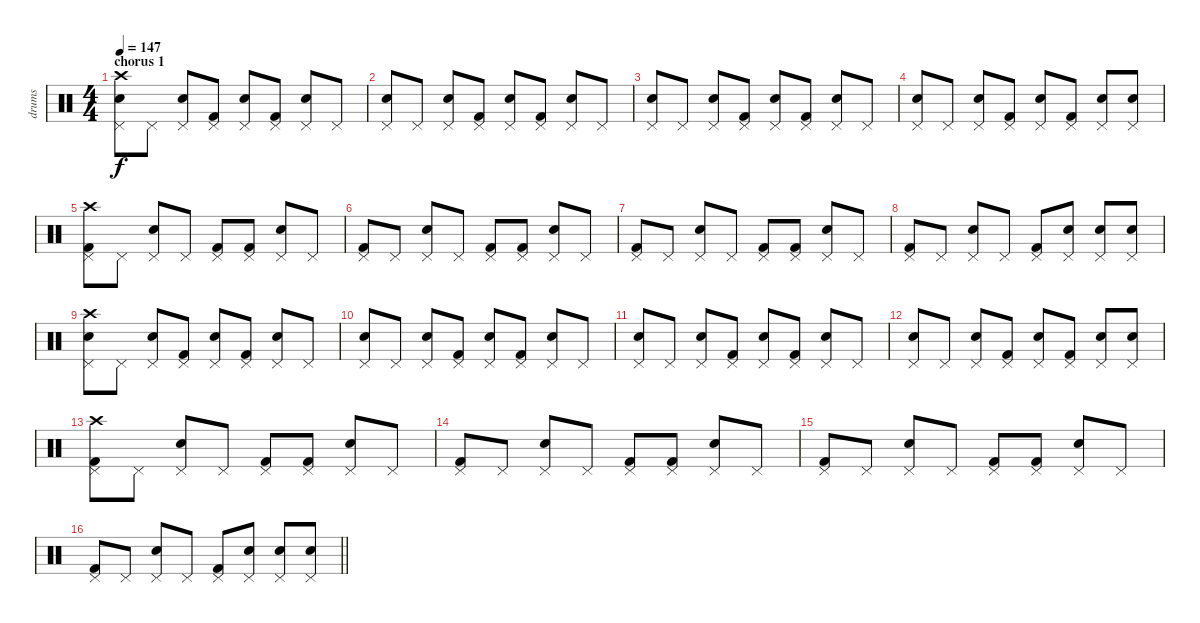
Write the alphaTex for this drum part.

\track ("drums" "drums") {instrument percussion}
\staff {score}
\articulation defaults
\ts (4 4)
\section ("" "chorus 1")
\tempo 147
\clef neutral
\ks c
("Crash high (hit)" "Snare (hit) 2" "Pedal Hi-Hat (hit)").8{dy f} "Pedal Hi-Hat (hit)".8 ("Snare (hit) 2" "Pedal Hi-Hat (hit)").8 ("Kick (hit) 2" "Pedal Hi-Hat (hit)").8 ("Snare (hit) 2" "Pedal Hi-Hat (hit)").8 ("Kick (hit) 2" "Pedal Hi-Hat (hit)").8 ("Snare (hit) 2" "Pedal Hi-Hat (hit)").8 "Pedal Hi-Hat (hit)".8 |
("Snare (hit) 2" "Pedal Hi-Hat (hit)").8 "Pedal Hi-Hat (hit)".8 ("Snare (hit) 2" "Pedal Hi-Hat (hit)").8 ("Kick (hit) 2" "Pedal Hi-Hat (hit)").8 ("Snare (hit) 2" "Pedal Hi-Hat (hit)").8 ("Kick (hit) 2" "Pedal Hi-Hat (hit)").8 ("Snare (hit) 2" "Pedal Hi-Hat (hit)").8 "Pedal Hi-Hat (hit)".8 |
("Snare (hit) 2" "Pedal Hi-Hat (hit)").8 "Pedal Hi-Hat (hit)".8 ("Snare (hit) 2" "Pedal Hi-Hat (hit)").8 ("Kick (hit) 2" "Pedal Hi-Hat (hit)").8 ("Snare (hit) 2" "Pedal Hi-Hat (hit)").8 ("Kick (hit) 2" "Pedal Hi-Hat (hit)").8 ("Snare (hit) 2" "Pedal Hi-Hat (hit)").8 "Pedal Hi-Hat (hit)".8 |
("Snare (hit) 2" "Pedal Hi-Hat (hit)").8 "Pedal Hi-Hat (hit)".8 ("Snare (hit) 2" "Pedal Hi-Hat (hit)").8 ("Kick (hit) 2" "Pedal Hi-Hat (hit)").8 ("Snare (hit) 2" "Pedal Hi-Hat (hit)").8 ("Kick (hit) 2" "Pedal Hi-Hat (hit)").8 ("Snare (hit) 2" "Pedal Hi-Hat (hit)").8 ("Snare (hit) 2" "Pedal Hi-Hat (hit)").8 |
("Kick (hit) 2" "Crash high (hit)" "Pedal Hi-Hat (hit)").8 "Pedal Hi-Hat (hit)".8 ("Snare (hit) 2" "Pedal Hi-Hat (hit)").8 "Pedal Hi-Hat (hit)".8 ("Kick (hit) 2" "Pedal Hi-Hat (hit)").8 ("Kick (hit) 2" "Pedal Hi-Hat (hit)").8 ("Snare (hit) 2" "Pedal Hi-Hat (hit)").8 "Pedal Hi-Hat (hit)".8 |
("Kick (hit) 2" "Pedal Hi-Hat (hit)").8 "Pedal Hi-Hat (hit)".8 ("Snare (hit) 2" "Pedal Hi-Hat (hit)").8 "Pedal Hi-Hat (hit)".8 ("Kick (hit) 2" "Pedal Hi-Hat (hit)").8 ("Kick (hit) 2" "Pedal Hi-Hat (hit)").8 ("Snare (hit) 2" "Pedal Hi-Hat (hit)").8 "Pedal Hi-Hat (hit)".8 |
("Kick (hit) 2" "Pedal Hi-Hat (hit)").8 "Pedal Hi-Hat (hit)".8 ("Snare (hit) 2" "Pedal Hi-Hat (hit)").8 "Pedal Hi-Hat (hit)".8 ("Kick (hit) 2" "Pedal Hi-Hat (hit)").8 ("Kick (hit) 2" "Pedal Hi-Hat (hit)").8 ("Snare (hit) 2" "Pedal Hi-Hat (hit)").8 "Pedal Hi-Hat (hit)".8 |
("Kick (hit) 2" "Pedal Hi-Hat (hit)").8 "Pedal Hi-Hat (hit)".8 ("Snare (hit) 2" "Pedal Hi-Hat (hit)").8 "Pedal Hi-Hat (hit)".8 ("Kick (hit) 2" "Pedal Hi-Hat (hit)").8 ("Snare (hit) 2" "Pedal Hi-Hat (hit)").8 ("Snare (hit) 2" "Pedal Hi-Hat (hit)").8 ("Snare (hit) 2" "Pedal Hi-Hat (hit)").8 |
("Crash high (hit)" "Snare (hit) 2" "Pedal Hi-Hat (hit)").8 "Pedal Hi-Hat (hit)".8 ("Snare (hit) 2" "Pedal Hi-Hat (hit)").8 ("Kick (hit) 2" "Pedal Hi-Hat (hit)").8 ("Snare (hit) 2" "Pedal Hi-Hat (hit)").8 ("Kick (hit) 2" "Pedal Hi-Hat (hit)").8 ("Snare (hit) 2" "Pedal Hi-Hat (hit)").8 "Pedal Hi-Hat (hit)".8 |
("Snare (hit) 2" "Pedal Hi-Hat (hit)").8 "Pedal Hi-Hat (hit)".8 ("Snare (hit) 2" "Pedal Hi-Hat (hit)").8 ("Kick (hit) 2" "Pedal Hi-Hat (hit)").8 ("Snare (hit) 2" "Pedal Hi-Hat (hit)").8 ("Kick (hit) 2" "Pedal Hi-Hat (hit)").8 ("Snare (hit) 2" "Pedal Hi-Hat (hit)").8 "Pedal Hi-Hat (hit)".8 |
("Snare (hit) 2" "Pedal Hi-Hat (hit)").8 "Pedal Hi-Hat (hit)".8 ("Snare (hit) 2" "Pedal Hi-Hat (hit)").8 ("Kick (hit) 2" "Pedal Hi-Hat (hit)").8 ("Snare (hit) 2" "Pedal Hi-Hat (hit)").8 ("Kick (hit) 2" "Pedal Hi-Hat (hit)").8 ("Snare (hit) 2" "Pedal Hi-Hat (hit)").8 "Pedal Hi-Hat (hit)".8 |
("Snare (hit) 2" "Pedal Hi-Hat (hit)").8 "Pedal Hi-Hat (hit)".8 ("Snare (hit) 2" "Pedal Hi-Hat (hit)").8 ("Kick (hit) 2" "Pedal Hi-Hat (hit)").8 ("Snare (hit) 2" "Pedal Hi-Hat (hit)").8 ("Kick (hit) 2" "Pedal Hi-Hat (hit)").8 ("Snare (hit) 2" "Pedal Hi-Hat (hit)").8 ("Snare (hit) 2" "Pedal Hi-Hat (hit)").8 |
("Kick (hit) 2" "Crash high (hit)" "Pedal Hi-Hat (hit)").8 "Pedal Hi-Hat (hit)".8 ("Snare (hit) 2" "Pedal Hi-Hat (hit)").8 "Pedal Hi-Hat (hit)".8 ("Kick (hit) 2" "Pedal Hi-Hat (hit)").8 ("Kick (hit) 2" "Pedal Hi-Hat (hit)").8 ("Snare (hit) 2" "Pedal Hi-Hat (hit)").8 "Pedal Hi-Hat (hit)".8 |
("Kick (hit) 2" "Pedal Hi-Hat (hit)").8 "Pedal Hi-Hat (hit)".8 ("Snare (hit) 2" "Pedal Hi-Hat (hit)").8 "Pedal Hi-Hat (hit)".8 ("Kick (hit) 2" "Pedal Hi-Hat (hit)").8 ("Kick (hit) 2" "Pedal Hi-Hat (hit)").8 ("Snare (hit) 2" "Pedal Hi-Hat (hit)").8 "Pedal Hi-Hat (hit)".8 |
("Kick (hit) 2" "Pedal Hi-Hat (hit)").8 "Pedal Hi-Hat (hit)".8 ("Snare (hit) 2" "Pedal Hi-Hat (hit)").8 "Pedal Hi-Hat (hit)".8 ("Kick (hit) 2" "Pedal Hi-Hat (hit)").8 ("Kick (hit) 2" "Pedal Hi-Hat (hit)").8 ("Snare (hit) 2" "Pedal Hi-Hat (hit)").8 "Pedal Hi-Hat (hit)".8 |
\barLineRight lightlight
("Kick (hit) 2" "Pedal Hi-Hat (hit)").8 "Pedal Hi-Hat (hit)".8 ("Snare (hit) 2" "Pedal Hi-Hat (hit)").8 "Pedal Hi-Hat (hit)".8 ("Kick (hit) 2" "Pedal Hi-Hat (hit)").8 ("Snare (hit) 2" "Pedal Hi-Hat (hit)").8 ("Snare (hit) 2" "Pedal Hi-Hat (hit)").8 ("Snare (hit) 2" "Pedal Hi-Hat (hit)").8
